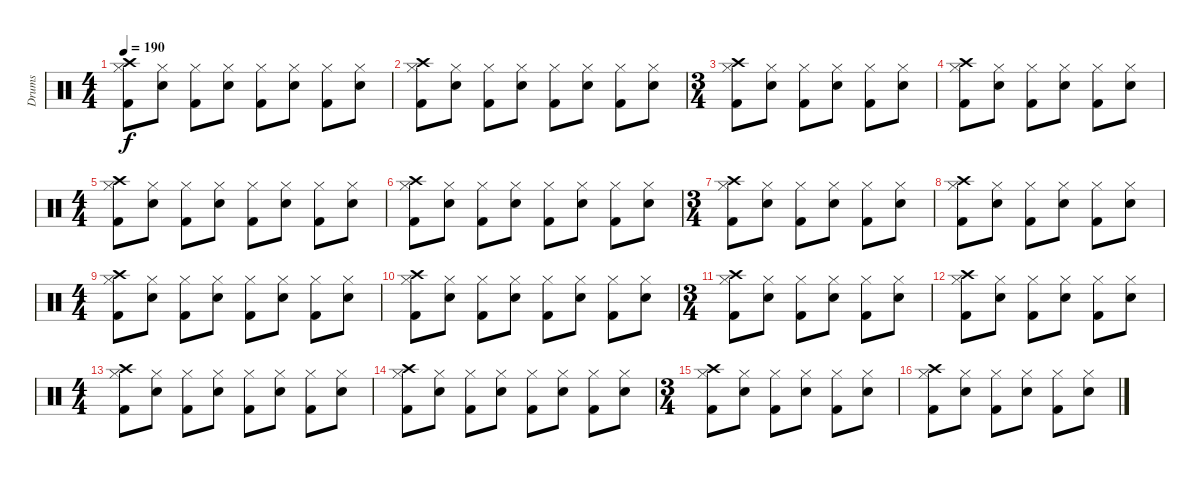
\track ("Drums" "Drums") {instrument percussion}
\staff {score}
\articulation defaults
\ts (4 4)
\tempo 190
\clef neutral
\ks c
("Kick (hit) 2" "Hi-Hat (closed)" "Crash high (hit)").8{dy f} ("Snare (hit) 2" "Hi-Hat (closed)").8 ("Kick (hit) 2" "Hi-Hat (closed)").8 ("Snare (hit) 2" "Hi-Hat (closed)").8 ("Kick (hit) 2" "Hi-Hat (closed)").8 ("Snare (hit) 2" "Hi-Hat (closed)").8 ("Kick (hit) 2" "Hi-Hat (closed)").8 ("Snare (hit) 2" "Hi-Hat (closed)").8 |
("Kick (hit) 2" "Hi-Hat (closed)" "Crash high (hit)").8 ("Snare (hit) 2" "Hi-Hat (closed)").8 ("Kick (hit) 2" "Hi-Hat (closed)").8 ("Snare (hit) 2" "Hi-Hat (closed)").8 ("Kick (hit) 2" "Hi-Hat (closed)").8 ("Snare (hit) 2" "Hi-Hat (closed)").8 ("Kick (hit) 2" "Hi-Hat (closed)").8 ("Snare (hit) 2" "Hi-Hat (closed)").8 |
\ts (3 4)
("Kick (hit) 2" "Hi-Hat (closed)" "Crash high (hit)").8 ("Snare (hit) 2" "Hi-Hat (closed)").8 ("Kick (hit) 2" "Hi-Hat (closed)").8 ("Snare (hit) 2" "Hi-Hat (closed)").8 ("Kick (hit) 2" "Hi-Hat (closed)").8 ("Snare (hit) 2" "Hi-Hat (closed)").8 |
("Kick (hit) 2" "Hi-Hat (closed)" "Crash high (hit)").8 ("Snare (hit) 2" "Hi-Hat (closed)").8 ("Kick (hit) 2" "Hi-Hat (closed)").8 ("Snare (hit) 2" "Hi-Hat (closed)").8 ("Kick (hit) 2" "Hi-Hat (closed)").8 ("Snare (hit) 2" "Hi-Hat (closed)").8 |
\ts (4 4)
("Kick (hit) 2" "Hi-Hat (closed)" "Crash high (hit)").8 ("Snare (hit) 2" "Hi-Hat (closed)").8 ("Kick (hit) 2" "Hi-Hat (closed)").8 ("Snare (hit) 2" "Hi-Hat (closed)").8 ("Kick (hit) 2" "Hi-Hat (closed)").8 ("Snare (hit) 2" "Hi-Hat (closed)").8 ("Kick (hit) 2" "Hi-Hat (closed)").8 ("Snare (hit) 2" "Hi-Hat (closed)").8 |
("Kick (hit) 2" "Hi-Hat (closed)" "Crash high (hit)").8 ("Snare (hit) 2" "Hi-Hat (closed)").8 ("Kick (hit) 2" "Hi-Hat (closed)").8 ("Snare (hit) 2" "Hi-Hat (closed)").8 ("Kick (hit) 2" "Hi-Hat (closed)").8 ("Snare (hit) 2" "Hi-Hat (closed)").8 ("Kick (hit) 2" "Hi-Hat (closed)").8 ("Snare (hit) 2" "Hi-Hat (closed)").8 |
\ts (3 4)
("Kick (hit) 2" "Hi-Hat (closed)" "Crash high (hit)").8 ("Snare (hit) 2" "Hi-Hat (closed)").8 ("Kick (hit) 2" "Hi-Hat (closed)").8 ("Snare (hit) 2" "Hi-Hat (closed)").8 ("Kick (hit) 2" "Hi-Hat (closed)").8 ("Snare (hit) 2" "Hi-Hat (closed)").8 |
("Kick (hit) 2" "Hi-Hat (closed)" "Crash high (hit)").8 ("Snare (hit) 2" "Hi-Hat (closed)").8 ("Kick (hit) 2" "Hi-Hat (closed)").8 ("Snare (hit) 2" "Hi-Hat (closed)").8 ("Kick (hit) 2" "Hi-Hat (closed)").8 ("Snare (hit) 2" "Hi-Hat (closed)").8 |
\ts (4 4)
("Kick (hit) 2" "Hi-Hat (closed)" "Crash high (hit)").8 ("Snare (hit) 2" "Hi-Hat (closed)").8 ("Kick (hit) 2" "Hi-Hat (closed)").8 ("Snare (hit) 2" "Hi-Hat (closed)").8 ("Kick (hit) 2" "Hi-Hat (closed)").8 ("Snare (hit) 2" "Hi-Hat (closed)").8 ("Kick (hit) 2" "Hi-Hat (closed)").8 ("Snare (hit) 2" "Hi-Hat (closed)").8 |
("Kick (hit) 2" "Hi-Hat (closed)" "Crash high (hit)").8 ("Snare (hit) 2" "Hi-Hat (closed)").8 ("Kick (hit) 2" "Hi-Hat (closed)").8 ("Snare (hit) 2" "Hi-Hat (closed)").8 ("Kick (hit) 2" "Hi-Hat (closed)").8 ("Snare (hit) 2" "Hi-Hat (closed)").8 ("Kick (hit) 2" "Hi-Hat (closed)").8 ("Snare (hit) 2" "Hi-Hat (closed)").8 |
\ts (3 4)
("Kick (hit) 2" "Hi-Hat (closed)" "Crash high (hit)").8 ("Snare (hit) 2" "Hi-Hat (closed)").8 ("Kick (hit) 2" "Hi-Hat (closed)").8 ("Snare (hit) 2" "Hi-Hat (closed)").8 ("Kick (hit) 2" "Hi-Hat (closed)").8 ("Snare (hit) 2" "Hi-Hat (closed)").8 |
("Kick (hit) 2" "Hi-Hat (closed)" "Crash high (hit)").8 ("Snare (hit) 2" "Hi-Hat (closed)").8 ("Kick (hit) 2" "Hi-Hat (closed)").8 ("Snare (hit) 2" "Hi-Hat (closed)").8 ("Kick (hit) 2" "Hi-Hat (closed)").8 ("Snare (hit) 2" "Hi-Hat (closed)").8 |
\ts (4 4)
("Kick (hit) 2" "Hi-Hat (closed)" "Crash high (hit)").8 ("Snare (hit) 2" "Hi-Hat (closed)").8 ("Kick (hit) 2" "Hi-Hat (closed)").8 ("Snare (hit) 2" "Hi-Hat (closed)").8 ("Kick (hit) 2" "Hi-Hat (closed)").8 ("Snare (hit) 2" "Hi-Hat (closed)").8 ("Kick (hit) 2" "Hi-Hat (closed)").8 ("Snare (hit) 2" "Hi-Hat (closed)").8 |
("Kick (hit) 2" "Hi-Hat (closed)" "Crash high (hit)").8 ("Snare (hit) 2" "Hi-Hat (closed)").8 ("Kick (hit) 2" "Hi-Hat (closed)").8 ("Snare (hit) 2" "Hi-Hat (closed)").8 ("Kick (hit) 2" "Hi-Hat (closed)").8 ("Snare (hit) 2" "Hi-Hat (closed)").8 ("Kick (hit) 2" "Hi-Hat (closed)").8 ("Snare (hit) 2" "Hi-Hat (closed)").8 |
\ts (3 4)
("Kick (hit) 2" "Hi-Hat (closed)" "Crash high (hit)").8 ("Snare (hit) 2" "Hi-Hat (closed)").8 ("Kick (hit) 2" "Hi-Hat (closed)").8 ("Snare (hit) 2" "Hi-Hat (closed)").8 ("Kick (hit) 2" "Hi-Hat (closed)").8 ("Snare (hit) 2" "Hi-Hat (closed)").8 |
("Kick (hit) 2" "Hi-Hat (closed)" "Crash high (hit)").8 ("Snare (hit) 2" "Hi-Hat (closed)").8 ("Kick (hit) 2" "Hi-Hat (closed)").8 ("Snare (hit) 2" "Hi-Hat (closed)").8 ("Kick (hit) 2" "Hi-Hat (closed)").8 ("Snare (hit) 2" "Hi-Hat (closed)").8
